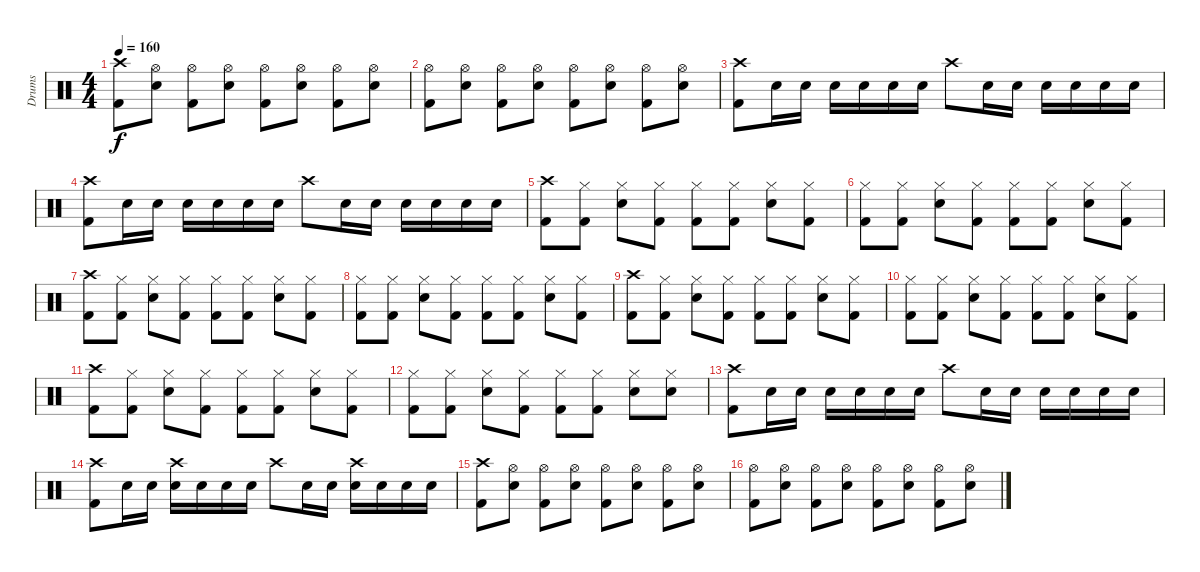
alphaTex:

\track ("Drums" "Drums") {solo instrument percussion}
\staff {score}
\articulation defaults
\ts (4 4)
\tempo 160
\clef neutral
\ks c
("Crash high (hit)" "Kick (hit) 2").8{dy f} ("Hi-Hat (open)" "Snare (hit) 2").8 ("Hi-Hat (open)" "Kick (hit) 2").8 ("Hi-Hat (open)" "Snare (hit) 2").8 ("Hi-Hat (open)" "Kick (hit) 2").8 ("Hi-Hat (open)" "Snare (hit) 2").8 ("Hi-Hat (open)" "Kick (hit) 2").8 ("Hi-Hat (open)" "Snare (hit) 2").8 |
("Hi-Hat (open)" "Kick (hit) 2").8 ("Hi-Hat (open)" "Snare (hit) 2").8 ("Hi-Hat (open)" "Kick (hit) 2").8 ("Hi-Hat (open)" "Snare (hit) 2").8 ("Hi-Hat (open)" "Kick (hit) 2").8 ("Hi-Hat (open)" "Snare (hit) 2").8 ("Hi-Hat (open)" "Kick (hit) 2").8 ("Hi-Hat (open)" "Snare (hit) 2").8 |
("Crash high (hit)" "Kick (hit) 2").8 "Snare (hit) 2".16 "Snare (hit) 2".16 "Snare (hit) 2".16 "Snare (hit) 2".16 "Snare (hit) 2".16 "Snare (hit) 2".16 "Crash high (hit)".8 "Snare (hit) 2".16 "Snare (hit) 2".16 "Snare (hit) 2".16 "Snare (hit) 2".16 "Snare (hit) 2".16 "Snare (hit) 2".16 |
("Crash high (hit)" "Kick (hit) 2").8 "Snare (hit) 2".16 "Snare (hit) 2".16 "Snare (hit) 2".16 "Snare (hit) 2".16 "Snare (hit) 2".16 "Snare (hit) 2".16 "Crash high (hit)".8 "Snare (hit) 2".16 "Snare (hit) 2".16 "Snare (hit) 2".16 "Snare (hit) 2".16 "Snare (hit) 2".16 "Snare (hit) 2".16 |
("Crash high (hit)" "Kick (hit) 2").8 ("Hi-Hat (closed)" "Kick (hit) 2").8 ("Hi-Hat (closed)" "Snare (hit) 2").8 ("Hi-Hat (closed)" "Kick (hit) 2").8 ("Hi-Hat (closed)" "Kick (hit) 2").8 ("Hi-Hat (closed)" "Kick (hit) 2").8 ("Hi-Hat (closed)" "Snare (hit) 2").8 ("Hi-Hat (closed)" "Kick (hit) 2").8 |
("Hi-Hat (closed)" "Kick (hit) 2").8 ("Hi-Hat (closed)" "Kick (hit) 2").8 ("Hi-Hat (closed)" "Snare (hit) 2").8 ("Hi-Hat (closed)" "Kick (hit) 2").8 ("Hi-Hat (closed)" "Kick (hit) 2").8 ("Hi-Hat (closed)" "Kick (hit) 2").8 ("Hi-Hat (closed)" "Snare (hit) 2").8 ("Hi-Hat (closed)" "Kick (hit) 2").8 |
("Crash high (hit)" "Kick (hit) 2").8 ("Hi-Hat (closed)" "Kick (hit) 2").8 ("Hi-Hat (closed)" "Snare (hit) 2").8 ("Hi-Hat (closed)" "Kick (hit) 2").8 ("Hi-Hat (closed)" "Kick (hit) 2").8 ("Hi-Hat (closed)" "Kick (hit) 2").8 ("Hi-Hat (closed)" "Snare (hit) 2").8 ("Hi-Hat (closed)" "Kick (hit) 2").8 |
("Hi-Hat (closed)" "Kick (hit) 2").8 ("Hi-Hat (closed)" "Kick (hit) 2").8 ("Hi-Hat (closed)" "Snare (hit) 2").8 ("Hi-Hat (closed)" "Kick (hit) 2").8 ("Hi-Hat (closed)" "Kick (hit) 2").8 ("Hi-Hat (closed)" "Kick (hit) 2").8 ("Hi-Hat (closed)" "Snare (hit) 2").8 ("Hi-Hat (closed)" "Kick (hit) 2").8 |
("Crash high (hit)" "Kick (hit) 2").8 ("Hi-Hat (closed)" "Kick (hit) 2").8 ("Hi-Hat (closed)" "Snare (hit) 2").8 ("Hi-Hat (closed)" "Kick (hit) 2").8 ("Hi-Hat (closed)" "Kick (hit) 2").8 ("Hi-Hat (closed)" "Kick (hit) 2").8 ("Hi-Hat (closed)" "Snare (hit) 2").8 ("Hi-Hat (closed)" "Kick (hit) 2").8 |
("Hi-Hat (closed)" "Kick (hit) 2").8 ("Hi-Hat (closed)" "Kick (hit) 2").8 ("Hi-Hat (closed)" "Snare (hit) 2").8 ("Hi-Hat (closed)" "Kick (hit) 2").8 ("Hi-Hat (closed)" "Kick (hit) 2").8 ("Hi-Hat (closed)" "Kick (hit) 2").8 ("Hi-Hat (closed)" "Snare (hit) 2").8 ("Hi-Hat (closed)" "Kick (hit) 2").8 |
("Crash high (hit)" "Kick (hit) 2").8 ("Hi-Hat (closed)" "Kick (hit) 2").8 ("Hi-Hat (closed)" "Snare (hit) 2").8 ("Hi-Hat (closed)" "Kick (hit) 2").8 ("Hi-Hat (closed)" "Kick (hit) 2").8 ("Hi-Hat (closed)" "Kick (hit) 2").8 ("Hi-Hat (closed)" "Snare (hit) 2").8 ("Hi-Hat (closed)" "Kick (hit) 2").8 |
("Hi-Hat (closed)" "Kick (hit) 2").8 ("Hi-Hat (closed)" "Kick (hit) 2").8 ("Hi-Hat (closed)" "Snare (hit) 2").8 ("Hi-Hat (closed)" "Kick (hit) 2").8 ("Hi-Hat (closed)" "Kick (hit) 2").8 ("Hi-Hat (closed)" "Kick (hit) 2").8 ("Hi-Hat (closed)" "Snare (hit) 2").8 ("Hi-Hat (closed)" "Snare (hit) 2").8 |
("Crash high (hit)" "Kick (hit) 2").8 "Snare (hit) 2".16 "Snare (hit) 2".16 "Snare (hit) 2".16 "Snare (hit) 2".16 "Snare (hit) 2".16 "Snare (hit) 2".16 "Crash high (hit)".8 "Snare (hit) 2".16 "Snare (hit) 2".16 "Snare (hit) 2".16 "Snare (hit) 2".16 "Snare (hit) 2".16 "Snare (hit) 2".16 |
("Crash high (hit)" "Kick (hit) 2").8 "Snare (hit) 2".16 "Snare (hit) 2".16 ("Crash high (hit)" "Snare (hit) 2").16 "Snare (hit) 2".16 "Snare (hit) 2".16 "Snare (hit) 2".16 "Crash high (hit)".8 "Snare (hit) 2".16 "Snare (hit) 2".16 ("Crash high (hit)" "Snare (hit) 2").16 "Snare (hit) 2".16 "Snare (hit) 2".16 "Snare (hit) 2".16 |
("Crash high (hit)" "Kick (hit) 2").8 ("Hi-Hat (open)" "Snare (hit) 2").8 ("Hi-Hat (open)" "Kick (hit) 2").8 ("Hi-Hat (open)" "Snare (hit) 2").8 ("Hi-Hat (open)" "Kick (hit) 2").8 ("Hi-Hat (open)" "Snare (hit) 2").8 ("Hi-Hat (open)" "Kick (hit) 2").8 ("Hi-Hat (open)" "Snare (hit) 2").8 |
("Hi-Hat (open)" "Kick (hit) 2").8 ("Hi-Hat (open)" "Snare (hit) 2").8 ("Hi-Hat (open)" "Kick (hit) 2").8 ("Hi-Hat (open)" "Snare (hit) 2").8 ("Hi-Hat (open)" "Kick (hit) 2").8 ("Hi-Hat (open)" "Snare (hit) 2").8 ("Hi-Hat (open)" "Kick (hit) 2").8 ("Hi-Hat (open)" "Snare (hit) 2").8
